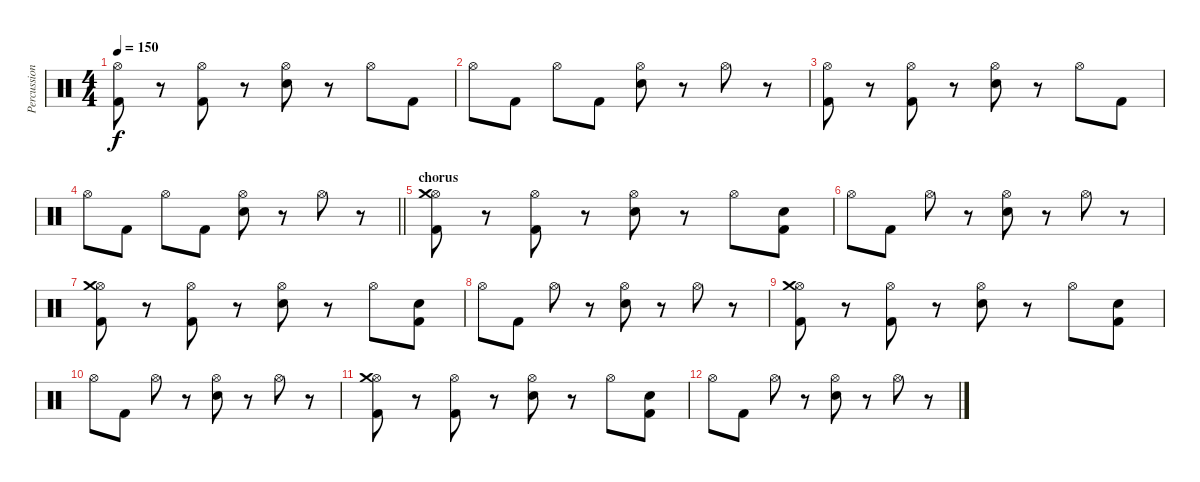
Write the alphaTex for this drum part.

\track ("Percussion" "Percussion") {instrument percussion}
\staff {score}
\articulation defaults
\ts (4 4)
\tempo 150
\clef neutral
\ks c
("Hi-Hat (open)" "Kick (hit) 2").8{dy f} r.8 ("Hi-Hat (open)" "Kick (hit) 2").8 r.8 ("Hi-Hat (open)" "Snare (hit) 2").8 r.8 "Hi-Hat (open)".8 "Kick (hit) 2".8 |
"Hi-Hat (open)".8 "Kick (hit) 2".8 "Hi-Hat (open)".8 "Kick (hit) 2".8 ("Hi-Hat (open)" "Snare (hit) 2").8 r.8 "Hi-Hat (open)".8 r.8 |
("Hi-Hat (open)" "Kick (hit) 2").8 r.8 ("Hi-Hat (open)" "Kick (hit) 2").8 r.8 ("Hi-Hat (open)" "Snare (hit) 2").8 r.8 "Hi-Hat (open)".8 "Kick (hit) 2".8 |
\barLineRight lightlight "Hi-Hat (open)".8 "Kick (hit) 2".8 "Hi-Hat (open)".8 "Kick (hit) 2".8
("Hi-Hat (open)" "Snare (hit) 2").8 r.8 "Hi-Hat (open)".8 r.8 |
\section ("" "chorus")
("Hi-Hat (open)" "Crash medium (hit)" "Kick (hit) 2").8 r.8 ("Hi-Hat (open)" "Kick (hit) 2").8 r.8 ("Hi-Hat (open)" "Snare (hit) 2").8 r.8 "Hi-Hat (open)".8 ("Snare (hit) 2" "Kick (hit) 2").8 |
"Hi-Hat (open)".8 "Kick (hit) 2".8 "Hi-Hat (open)".8 r.8 ("Hi-Hat (open)" "Snare (hit) 2").8 r.8 "Hi-Hat (open)".8 r.8 |
("Hi-Hat (open)" "Crash medium (hit)" "Kick (hit) 2").8 r.8 ("Hi-Hat (open)" "Kick (hit) 2").8 r.8 ("Hi-Hat (open)" "Snare (hit) 2").8 r.8 "Hi-Hat (open)".8 ("Snare (hit) 2" "Kick (hit) 2").8 |
"Hi-Hat (open)".8 "Kick (hit) 2".8 "Hi-Hat (open)".8 r.8 ("Hi-Hat (open)" "Snare (hit) 2").8 r.8 "Hi-Hat (open)".8 r.8 |
("Hi-Hat (open)" "Crash medium (hit)" "Kick (hit) 2").8 r.8 ("Hi-Hat (open)" "Kick (hit) 2").8 r.8 ("Hi-Hat (open)" "Snare (hit) 2").8 r.8 "Hi-Hat (open)".8 ("Snare (hit) 2" "Kick (hit) 2").8 |
"Hi-Hat (open)".8 "Kick (hit) 2".8 "Hi-Hat (open)".8 r.8 ("Hi-Hat (open)" "Snare (hit) 2").8 r.8 "Hi-Hat (open)".8 r.8 |
("Hi-Hat (open)" "Crash medium (hit)" "Kick (hit) 2").8 r.8 ("Hi-Hat (open)" "Kick (hit) 2").8 r.8 ("Hi-Hat (open)" "Snare (hit) 2").8 r.8 "Hi-Hat (open)".8 ("Snare (hit) 2" "Kick (hit) 2").8 |
"Hi-Hat (open)".8 "Kick (hit) 2".8 "Hi-Hat (open)".8 r.8 ("Hi-Hat (open)" "Snare (hit) 2").8 r.8 "Hi-Hat (open)".8 r.8
